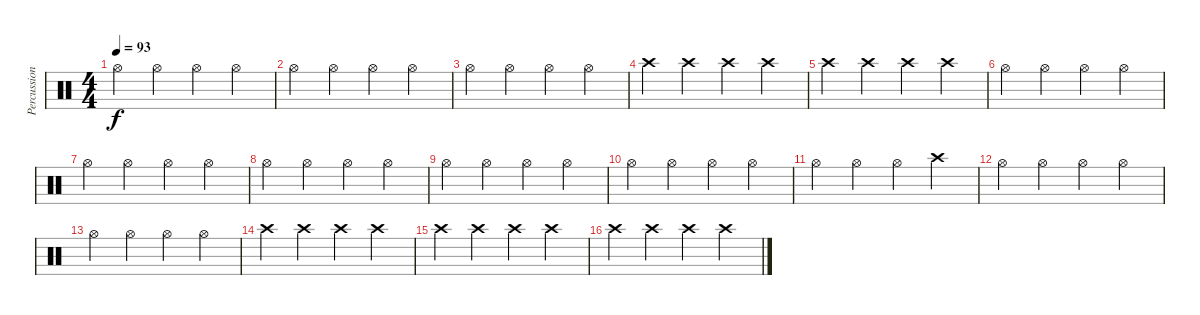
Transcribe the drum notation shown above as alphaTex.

\track ("Percussion" "Percussion") {instrument percussion}
\staff {score}
\articulation defaults
\ts (4 4)
\tempo 93
\clef neutral
\ks c "Hi-Hat (open)".4{dy f} "Hi-Hat (open)".4 "Hi-Hat (open)".4 "Hi-Hat (open)".4
|
"Hi-Hat (open)".4 "Hi-Hat (open)".4 "Hi-Hat (open)".4 "Hi-Hat (open)".4 |
"Hi-Hat (open)".4 "Hi-Hat (open)".4 "Hi-Hat (open)".4 "Hi-Hat (open)".4 |
"Crash high (hit)".4 "Crash high (hit)".4 "Crash high (hit)".4 "Crash high (hit)".4 |
"Crash high (hit)".4 "Crash high (hit)".4 "Crash high (hit)".4 "Crash high (hit)".4 |
"Hi-Hat (open)".4 "Hi-Hat (open)".4 "Hi-Hat (open)".4 "Hi-Hat (open)".4 |
"Hi-Hat (open)".4 "Hi-Hat (open)".4 "Hi-Hat (open)".4 "Hi-Hat (open)".4 |
"Hi-Hat (open)".4 "Hi-Hat (open)".4 "Hi-Hat (open)".4 "Hi-Hat (open)".4 |
"Hi-Hat (open)".4 "Hi-Hat (open)".4 "Hi-Hat (open)".4 "Hi-Hat (open)".4 |
"Hi-Hat (open)".4 "Hi-Hat (open)".4 "Hi-Hat (open)".4 "Hi-Hat (open)".4 |
"Hi-Hat (open)".4 "Hi-Hat (open)".4 "Hi-Hat (open)".4 "Crash high (hit)".4 |
"Hi-Hat (open)".4 "Hi-Hat (open)".4 "Hi-Hat (open)".4 "Hi-Hat (open)".4 |
"Hi-Hat (open)".4 "Hi-Hat (open)".4 "Hi-Hat (open)".4 "Hi-Hat (open)".4 |
"Crash high (hit)".4 "Crash high (hit)".4 "Crash high (hit)".4 "Crash high (hit)".4 |
"Crash high (hit)".4 "Crash high (hit)".4 "Crash high (hit)".4 "Crash high (hit)".4 |
"Crash high (hit)".4 "Crash high (hit)".4 "Crash high (hit)".4 "Crash high (hit)".4
